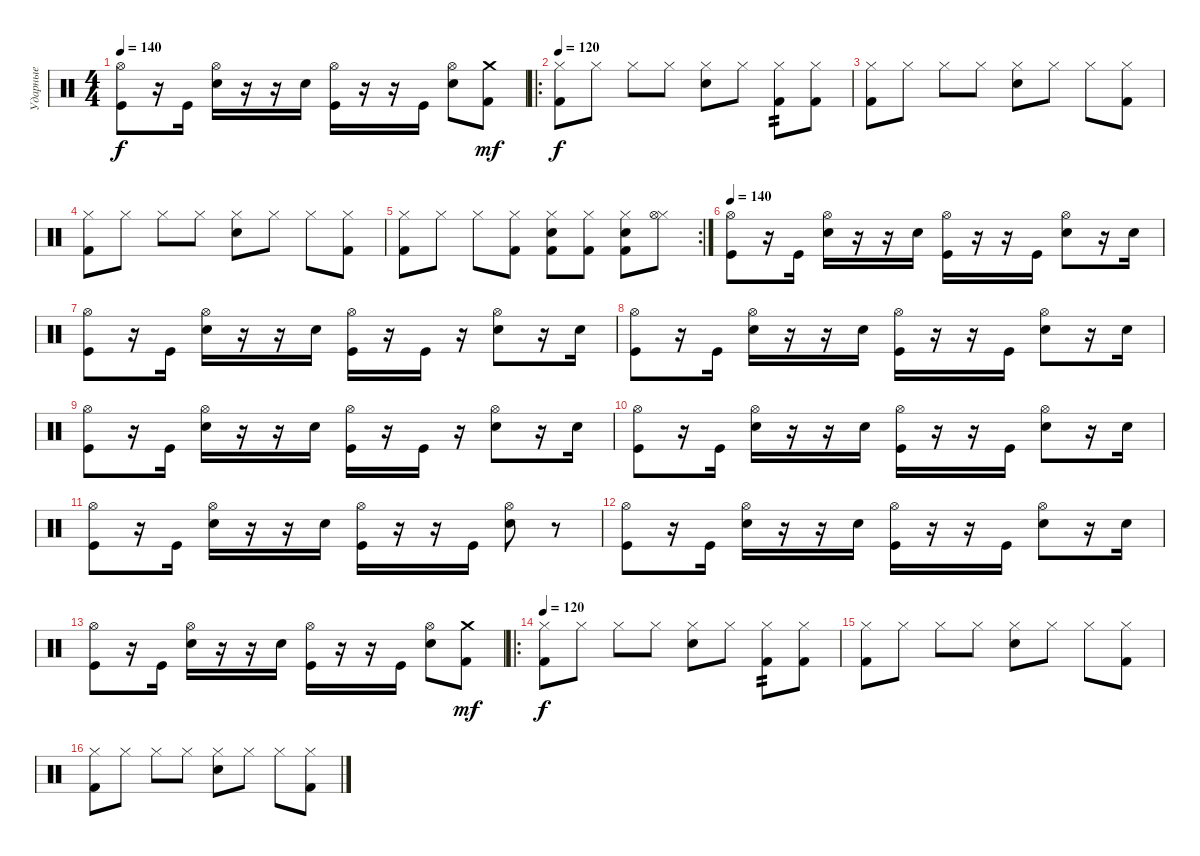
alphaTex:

\track ("Ударные" "Ударные") {instrument percussion}
\staff {score}
\articulation defaults
\ts (4 4)
\tempo 140
\clef neutral
\ks c
("Hi-Hat (open)" "Kick (hit)").8{dy f} r.16 "Kick (hit)".16 ("Hi-Hat (open)" "Snare (hit) 2").16 r.16 r.16 "Snare (hit) 2".16 ("Hi-Hat (open)" "Kick (hit)").16 r.16 r.16 "Kick (hit)".16 ("Hi-Hat (open)" "Snare (hit) 2").8 ("Kick (hit) 2" "Crash medium (hit)").8{dy mf} |
\ro
\tempo 120
("Hi-Hat (closed)" "Kick (hit) 2").8{dy f} "Hi-Hat (closed)".8 "Hi-Hat (closed)".8 "Hi-Hat (closed)".8 ("Hi-Hat (closed)" "Snare (hit) 2").8 "Hi-Hat (closed)".8 ("Hi-Hat (closed)" "Kick (hit) 2").8{tp 2} ("Hi-Hat (closed)" "Kick (hit) 2").8 |
("Hi-Hat (closed)" "Kick (hit) 2").8 "Hi-Hat (closed)".8 "Hi-Hat (closed)".8 "Hi-Hat (closed)".8 ("Hi-Hat (closed)" "Snare (hit) 2").8 "Hi-Hat (closed)".8 "Hi-Hat (closed)".8 ("Hi-Hat (closed)" "Kick (hit) 2").8 |
("Hi-Hat (closed)" "Kick (hit) 2").8 "Hi-Hat (closed)".8 "Hi-Hat (closed)".8 "Hi-Hat (closed)".8 ("Hi-Hat (closed)" "Snare (hit) 2").8 "Hi-Hat (closed)".8 "Hi-Hat (closed)".8 ("Hi-Hat (closed)" "Kick (hit) 2").8 |
\rc 2
("Hi-Hat (closed)" "Kick (hit) 2").8 "Hi-Hat (closed)".8 "Hi-Hat (closed)".8 ("Hi-Hat (closed)" "Kick (hit) 2").8 ("Hi-Hat (closed)" "Snare (hit) 2" "Kick (hit) 2").8 ("Hi-Hat (closed)" "Kick (hit) 2").8 ("Hi-Hat (closed)" "Snare (hit) 2" "Kick (hit) 2").8 ("Hi-Hat (closed)" "Hi-Hat (open)").8 |
\tempo 140
("Hi-Hat (open)" "Kick (hit)").8 r.16 "Kick (hit)".16 ("Hi-Hat (open)" "Snare (hit) 2").16 r.16 r.16 "Snare (hit) 2".16 ("Hi-Hat (open)" "Kick (hit)").16 r.16 r.16 "Kick (hit)".16 ("Hi-Hat (open)" "Snare (hit) 2").8 r.16 "Snare (hit) 2".16 |
("Hi-Hat (open)" "Kick (hit)").8 r.16 "Kick (hit)".16 ("Hi-Hat (open)" "Snare (hit) 2").16 r.16 r.16 "Snare (hit) 2".16 ("Hi-Hat (open)" "Kick (hit)").16 r.16 "Kick (hit)".16 r.16 ("Hi-Hat (open)" "Snare (hit) 2").8 r.16 "Snare (hit) 2".16 |
("Hi-Hat (open)" "Kick (hit)").8 r.16 "Kick (hit)".16 ("Hi-Hat (open)" "Snare (hit) 2").16 r.16 r.16 "Snare (hit) 2".16 ("Hi-Hat (open)" "Kick (hit)").16 r.16 r.16 "Kick (hit)".16 ("Hi-Hat (open)" "Snare (hit) 2").8 r.16 "Snare (hit) 2".16 |
("Hi-Hat (open)" "Kick (hit)").8 r.16 "Kick (hit)".16 ("Hi-Hat (open)" "Snare (hit) 2").16 r.16 r.16 "Snare (hit) 2".16 ("Hi-Hat (open)" "Kick (hit)").16 r.16 "Kick (hit)".16 r.16 ("Hi-Hat (open)" "Snare (hit) 2").8 r.16 "Snare (hit) 2".16 |
("Hi-Hat (open)" "Kick (hit)").8 r.16 "Kick (hit)".16 ("Hi-Hat (open)" "Snare (hit) 2").16 r.16 r.16 "Snare (hit) 2".16 ("Hi-Hat (open)" "Kick (hit)").16 r.16 r.16 "Kick (hit)".16 ("Hi-Hat (open)" "Snare (hit) 2").8 r.16 "Snare (hit) 2".16 |
("Hi-Hat (open)" "Kick (hit)").8 r.16 "Kick (hit)".16 ("Hi-Hat (open)" "Snare (hit) 2").16 r.16 r.16 "Snare (hit) 2".16 ("Hi-Hat (open)" "Kick (hit)").16 r.16 r.16 "Kick (hit)".16 ("Hi-Hat (open)" "Snare (hit) 2").8 r.8 |
("Hi-Hat (open)" "Kick (hit)").8 r.16 "Kick (hit)".16 ("Hi-Hat (open)" "Snare (hit) 2").16 r.16 r.16 "Snare (hit) 2".16 ("Hi-Hat (open)" "Kick (hit)").16 r.16 r.16 "Kick (hit)".16 ("Hi-Hat (open)" "Snare (hit) 2").8 r.16 "Snare (hit) 2".16 |
("Hi-Hat (open)" "Kick (hit)").8 r.16 "Kick (hit)".16 ("Hi-Hat (open)" "Snare (hit) 2").16 r.16 r.16 "Snare (hit) 2".16 ("Hi-Hat (open)" "Kick (hit)").16 r.16 r.16 "Kick (hit)".16 ("Hi-Hat (open)" "Snare (hit) 2").8 ("Kick (hit) 2" "Crash medium (hit)").8{dy mf} |
\ro
\tempo 120
("Hi-Hat (closed)" "Kick (hit) 2").8{dy f} "Hi-Hat (closed)".8 "Hi-Hat (closed)".8 "Hi-Hat (closed)".8 ("Hi-Hat (closed)" "Snare (hit) 2").8 "Hi-Hat (closed)".8 ("Hi-Hat (closed)" "Kick (hit) 2").8{tp 2} ("Hi-Hat (closed)" "Kick (hit) 2").8 |
("Hi-Hat (closed)" "Kick (hit) 2").8 "Hi-Hat (closed)".8 "Hi-Hat (closed)".8 "Hi-Hat (closed)".8 ("Hi-Hat (closed)" "Snare (hit) 2").8 "Hi-Hat (closed)".8 "Hi-Hat (closed)".8 ("Hi-Hat (closed)" "Kick (hit) 2").8 |
("Hi-Hat (closed)" "Kick (hit) 2").8 "Hi-Hat (closed)".8 "Hi-Hat (closed)".8 "Hi-Hat (closed)".8 ("Hi-Hat (closed)" "Snare (hit) 2").8 "Hi-Hat (closed)".8 "Hi-Hat (closed)".8 ("Hi-Hat (closed)" "Kick (hit) 2").8
